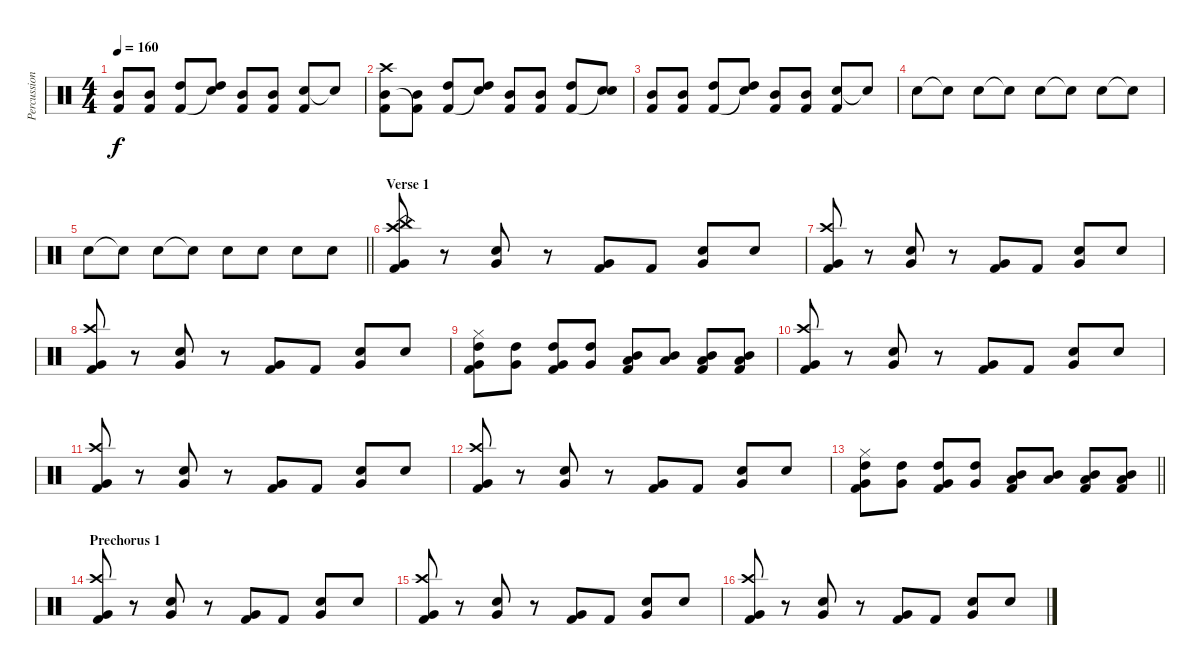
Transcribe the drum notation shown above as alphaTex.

\track ("Percussion" "Percussion") {instrument percussion}
\staff {score}
\articulation defaults
\ts (4 4)
\tempo 160
\clef neutral
\ks c
("Mid Tom (hit)" "Kick (hit) 2").8{dy f} ("Mid Tom (hit)" "Kick (hit) 2").8 ("High Tom (hit)" "Kick (hit) 2").8 ("High Tom (hit)" "Snare (hit)"{t}).8 ("Mid Tom (hit)" "Kick (hit) 2").8 ("Mid Tom (hit)" "Kick (hit) 2").8 ("Snare (hit) 2" "Kick (hit) 2").8 "Snare (hit)"{t}.8 |
("Crash high (hit)" "Mid Tom (hit)" "Kick (hit) 2").8 ("Mid Tom (hit)" "Kick (hit) 2"{t}).8 ("High Tom (hit)" "Kick (hit) 2").8 ("High Tom (hit)" "Snare (hit)"{t}).8 ("Mid Tom (hit)" "Kick (hit) 2").8 ("Mid Tom (hit)" "Kick (hit) 2").8 ("High Tom (hit)" "Kick (hit) 2").8 ("Snare (hit) 2" "Snare (hit)"{t}).8 |
("Mid Tom (hit)" "Kick (hit) 2").8 ("Mid Tom (hit)" "Kick (hit) 2").8 ("High Tom (hit)" "Kick (hit) 2").8 ("High Tom (hit)" "Snare (hit)"{t}).8 ("Mid Tom (hit)" "Kick (hit) 2").8 ("Mid Tom (hit)" "Kick (hit) 2").8 ("Snare (hit) 2" "Kick (hit) 2").8 "Snare (hit)"{t}.8 |
"Snare (hit) 2".8 "Snare (hit)"{t}.8 "Snare (hit) 2".8 "Snare (hit)"{t}.8 "Snare (hit) 2".8 "Snare (hit)"{t}.8 "Snare (hit) 2".8 "Snare (hit)"{t}.8 |
\barLineRight lightlight "Snare (hit) 2".8 "Snare (hit)"{t}.8 "Snare (hit) 2".8 "Snare (hit)"{t}.8 "Snare (hit) 2".8 "Snare (hit) 2".8 "Snare (hit) 2".8 "Snare (hit) 2".8
|
\section ("" "Verse 1")
("Crash high (hit)" "China (hit)" "Very Low Tom (hit)" "Kick (hit) 2").8 r.8 ("Snare (hit) 2" "Very Low Tom (hit)").8 r.8 ("Very Low Tom (hit)" "Kick (hit) 2").8 "Kick (hit) 2".8 ("Snare (hit) 2" "Very Low Tom (hit)").8 "Snare (hit) 2".8 |
("Crash high (hit)" "Very Low Tom (hit)" "Kick (hit) 2").8 r.8 ("Snare (hit) 2" "Very Low Tom (hit)").8 r.8 ("Very Low Tom (hit)" "Kick (hit) 2").8 "Kick (hit) 2".8 ("Snare (hit) 2" "Very Low Tom (hit)").8 "Snare (hit) 2".8 |
("Crash high (hit)" "Very Low Tom (hit)" "Kick (hit) 2").8 r.8 ("Snare (hit) 2" "Very Low Tom (hit)").8 r.8 ("Very Low Tom (hit)" "Kick (hit) 2").8 "Kick (hit) 2".8 ("Snare (hit) 2" "Very Low Tom (hit)").8 "Snare (hit) 2".8 |
("Hi-Hat (closed)" "High Tom (hit)" "Very Low Tom (hit)" "Kick (hit) 2").8 ("High Tom (hit)" "Very Low Tom (hit)").8 ("High Tom (hit)" "Very Low Tom (hit)" "Kick (hit) 2").8 ("High Tom (hit)" "Very Low Tom (hit)").8 ("Mid Tom (hit)" "Low Floor Tom (hit)" "Kick (hit) 2").8 ("Mid Tom (hit)" "Low Floor Tom (hit)").8 ("Mid Tom (hit)" "Low Floor Tom (hit)" "Kick (hit) 2").8 ("Mid Tom (hit)" "Low Floor Tom (hit)" "Kick (hit) 2").8 |
("Crash high (hit)" "Very Low Tom (hit)" "Kick (hit) 2").8 r.8 ("Snare (hit) 2" "Very Low Tom (hit)").8 r.8 ("Very Low Tom (hit)" "Kick (hit) 2").8 "Kick (hit) 2".8 ("Snare (hit) 2" "Very Low Tom (hit)").8 "Snare (hit) 2".8 |
("Crash high (hit)" "Very Low Tom (hit)" "Kick (hit) 2").8 r.8 ("Snare (hit) 2" "Very Low Tom (hit)").8 r.8 ("Very Low Tom (hit)" "Kick (hit) 2").8 "Kick (hit) 2".8 ("Snare (hit) 2" "Very Low Tom (hit)").8 "Snare (hit) 2".8 |
("Crash high (hit)" "Very Low Tom (hit)" "Kick (hit) 2").8 r.8 ("Snare (hit) 2" "Very Low Tom (hit)").8 r.8 ("Very Low Tom (hit)" "Kick (hit) 2").8 "Kick (hit) 2".8 ("Snare (hit) 2" "Very Low Tom (hit)").8 "Snare (hit) 2".8 |
\barLineRight lightlight
("Hi-Hat (closed)" "High Tom (hit)" "Very Low Tom (hit)" "Kick (hit) 2").8 ("High Tom (hit)" "Very Low Tom (hit)").8 ("High Tom (hit)" "Very Low Tom (hit)" "Kick (hit) 2").8 ("High Tom (hit)" "Very Low Tom (hit)").8 ("Mid Tom (hit)" "Low Floor Tom (hit)" "Kick (hit) 2").8 ("Mid Tom (hit)" "Low Floor Tom (hit)").8 ("Mid Tom (hit)" "Low Floor Tom (hit)" "Kick (hit) 2").8 ("Mid Tom (hit)" "Low Floor Tom (hit)" "Kick (hit) 2").8 |
\section ("" "Prechorus 1")
("Crash high (hit)" "Very Low Tom (hit)" "Kick (hit) 2").8 r.8 ("Snare (hit) 2" "Very Low Tom (hit)").8 r.8 ("Very Low Tom (hit)" "Kick (hit) 2").8 "Kick (hit) 2".8 ("Snare (hit) 2" "Very Low Tom (hit)").8 "Snare (hit) 2".8 |
("Crash high (hit)" "Very Low Tom (hit)" "Kick (hit) 2").8 r.8 ("Snare (hit) 2" "Very Low Tom (hit)").8 r.8 ("Very Low Tom (hit)" "Kick (hit) 2").8 "Kick (hit) 2".8 ("Snare (hit) 2" "Very Low Tom (hit)").8 "Snare (hit) 2".8 |
("Crash high (hit)" "Very Low Tom (hit)" "Kick (hit) 2").8 r.8 ("Snare (hit) 2" "Very Low Tom (hit)").8 r.8 ("Very Low Tom (hit)" "Kick (hit) 2").8 "Kick (hit) 2".8 ("Snare (hit) 2" "Very Low Tom (hit)").8 "Snare (hit) 2".8
